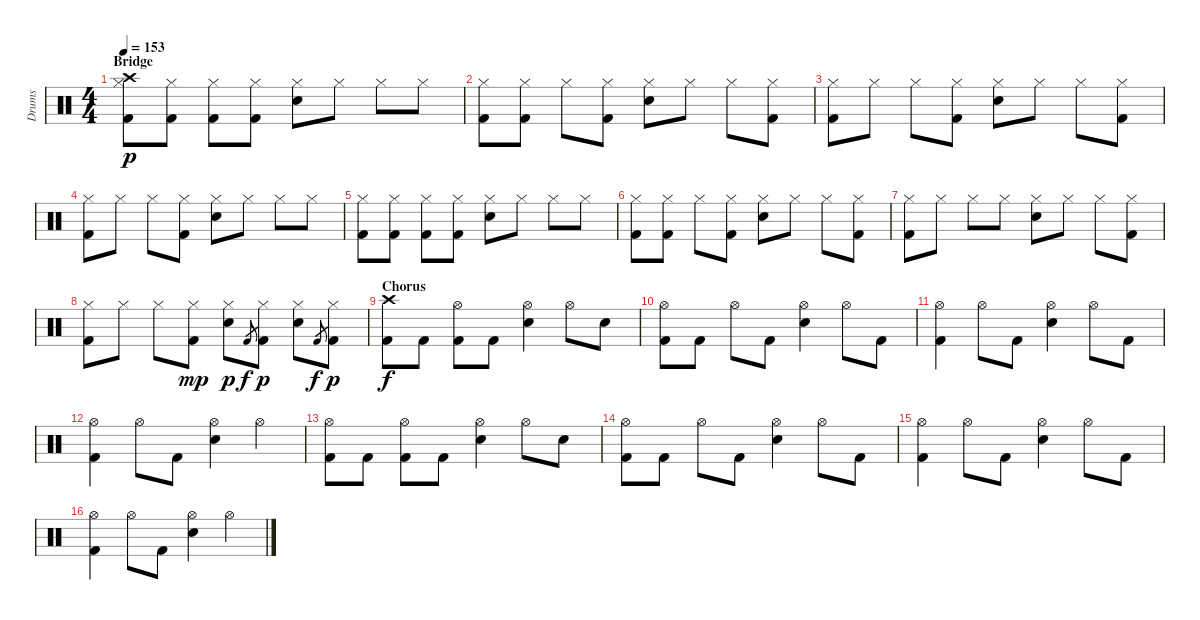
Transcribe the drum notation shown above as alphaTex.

\track ("Drums" "Drums") {instrument percussion}
\staff {score}
\articulation defaults
\ts (4 4)
\section ("" "Bridge")
\tempo 153
\clef neutral
\ks c
("Crash high (hit)" "Hi-Hat (closed)" "Kick (hit) 2").8{dy p} ("Hi-Hat (closed)" "Kick (hit) 2").8 ("Hi-Hat (closed)" "Kick (hit) 2").8 ("Hi-Hat (closed)" "Kick (hit) 2").8 ("Hi-Hat (closed)" "Electric Snare (hit)").8 "Hi-Hat (closed)".8 "Hi-Hat (closed)".8 "Hi-Hat (closed)".8 |
("Hi-Hat (closed)" "Kick (hit) 2").8 ("Hi-Hat (closed)" "Kick (hit) 2").8 "Hi-Hat (closed)".8 ("Hi-Hat (closed)" "Kick (hit) 2").8 ("Hi-Hat (closed)" "Electric Snare (hit)").8 "Hi-Hat (closed)".8 "Hi-Hat (closed)".8 ("Hi-Hat (closed)" "Kick (hit) 2").8 |
("Hi-Hat (closed)" "Kick (hit) 2").8 "Hi-Hat (closed)".8 "Hi-Hat (closed)".8 ("Hi-Hat (closed)" "Kick (hit) 2").8 ("Hi-Hat (closed)" "Electric Snare (hit)").8 "Hi-Hat (closed)".8 "Hi-Hat (closed)".8 ("Hi-Hat (closed)" "Kick (hit) 2").8 |
("Hi-Hat (closed)" "Kick (hit) 2").8 "Hi-Hat (closed)".8 "Hi-Hat (closed)".8 ("Hi-Hat (closed)" "Kick (hit) 2").8 ("Hi-Hat (closed)" "Electric Snare (hit)").8 "Hi-Hat (closed)".8 "Hi-Hat (closed)".8 "Hi-Hat (closed)".8 |
("Hi-Hat (closed)" "Kick (hit) 2").8 ("Hi-Hat (closed)" "Kick (hit) 2").8 ("Hi-Hat (closed)" "Kick (hit) 2").8 ("Hi-Hat (closed)" "Kick (hit) 2").8 ("Hi-Hat (closed)" "Electric Snare (hit)").8 "Hi-Hat (closed)".8 "Hi-Hat (closed)".8 "Hi-Hat (closed)".8 |
("Hi-Hat (closed)" "Kick (hit) 2").8 ("Hi-Hat (closed)" "Kick (hit) 2").8 "Hi-Hat (closed)".8 ("Hi-Hat (closed)" "Kick (hit) 2").8 ("Hi-Hat (closed)" "Electric Snare (hit)").8 "Hi-Hat (closed)".8 "Hi-Hat (closed)".8 ("Hi-Hat (closed)" "Kick (hit) 2").8 |
("Hi-Hat (closed)" "Kick (hit) 2").8 "Hi-Hat (closed)".8 "Hi-Hat (closed)".8 "Hi-Hat (closed)".8 ("Hi-Hat (closed)" "Electric Snare (hit)").8 "Hi-Hat (closed)".8 "Hi-Hat (closed)".8 ("Hi-Hat (closed)" "Kick (hit) 2").8 |
("Hi-Hat (closed)" "Kick (hit) 2").8 "Hi-Hat (closed)".8 "Hi-Hat (closed)".8 ("Hi-Hat (closed)" "Kick (hit) 2").8{dy mp} ("Hi-Hat (closed)" "Electric Snare (hit)").8{dy p} "Kick (hit) 2".8{gr dy f} ("Hi-Hat (closed)" "Kick (hit) 2").8{dy p} ("Hi-Hat (closed)" "Electric Snare (hit)").8 "Kick (hit) 2".8{gr dy f} ("Hi-Hat (closed)" "Kick (hit) 2").8{dy p} |
\section ("" "Chorus")
("Crash high (hit)" "Kick (hit) 2").8{dy f} "Kick (hit) 2".8 ("Hi-Hat (open)" "Kick (hit) 2").8 "Kick (hit) 2".8 ("Hi-Hat (open)" "Electric Snare (hit)").4 "Hi-Hat (open)".8 "Electric Snare (hit)".8 |
("Hi-Hat (open)" "Kick (hit) 2").8 "Kick (hit) 2".8 "Hi-Hat (open)".8 "Kick (hit) 2".8 ("Hi-Hat (open)" "Electric Snare (hit)").4 "Hi-Hat (open)".8 "Kick (hit) 2".8 |
("Hi-Hat (open)" "Kick (hit) 2").4 "Hi-Hat (open)".8 "Kick (hit) 2".8 ("Hi-Hat (open)" "Electric Snare (hit)").4 "Hi-Hat (open)".8 "Kick (hit) 2".8 |
("Hi-Hat (open)" "Kick (hit) 2").4 "Hi-Hat (open)".8 "Kick (hit) 2".8 ("Hi-Hat (open)" "Electric Snare (hit)").4 "Hi-Hat (open)".4 |
("Hi-Hat (open)" "Kick (hit) 2").8 "Kick (hit) 2".8 ("Hi-Hat (open)" "Kick (hit) 2").8 "Kick (hit) 2".8 ("Hi-Hat (open)" "Electric Snare (hit)").4 "Hi-Hat (open)".8 "Electric Snare (hit)".8 |
("Hi-Hat (open)" "Kick (hit) 2").8 "Kick (hit) 2".8 "Hi-Hat (open)".8 "Kick (hit) 2".8 ("Hi-Hat (open)" "Electric Snare (hit)").4 "Hi-Hat (open)".8 "Kick (hit) 2".8 |
("Hi-Hat (open)" "Kick (hit) 2").4 "Hi-Hat (open)".8 "Kick (hit) 2".8 ("Hi-Hat (open)" "Electric Snare (hit)").4 "Hi-Hat (open)".8 "Kick (hit) 2".8 |
("Hi-Hat (open)" "Kick (hit) 2").4 "Hi-Hat (open)".8 "Kick (hit) 2".8 ("Hi-Hat (open)" "Electric Snare (hit)").4 "Hi-Hat (open)".4
